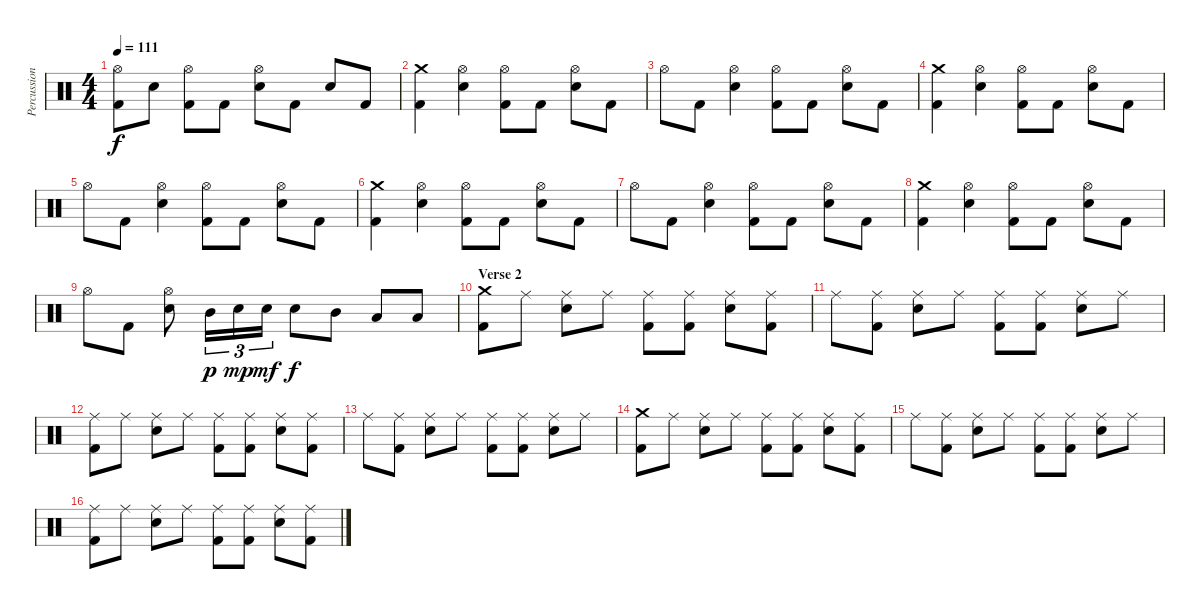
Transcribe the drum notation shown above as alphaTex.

\track ("Percussion" "Percussion") {instrument percussion}
\staff {score}
\articulation defaults
\ts (4 4)
\tempo 111
\clef neutral
\ks c
("Hi-Hat (open)" "Kick (hit) 2").8{dy f} "Electric Snare (hit)".8 ("Hi-Hat (open)" "Kick (hit) 2").8 "Kick (hit) 2".8 ("Hi-Hat (open)" "Electric Snare (hit)").8 "Kick (hit) 2".8 "Electric Snare (hit)".8 "Kick (hit) 2".8 |
("Crash medium (hit)" "Kick (hit) 2").4 ("Hi-Hat (open)" "Electric Snare (hit)").4 ("Hi-Hat (open)" "Kick (hit) 2").8 "Kick (hit) 2".8 ("Hi-Hat (open)" "Electric Snare (hit)").8 "Kick (hit) 2".8 |
"Hi-Hat (open)".8 "Kick (hit) 2".8 ("Hi-Hat (open)" "Electric Snare (hit)").4 ("Hi-Hat (open)" "Kick (hit) 2").8 "Kick (hit) 2".8 ("Hi-Hat (open)" "Electric Snare (hit)").8 "Kick (hit) 2".8 |
("Crash medium (hit)" "Kick (hit) 2").4 ("Hi-Hat (open)" "Electric Snare (hit)").4 ("Hi-Hat (open)" "Kick (hit) 2").8 "Kick (hit) 2".8 ("Hi-Hat (open)" "Electric Snare (hit)").8 "Kick (hit) 2".8 |
"Hi-Hat (open)".8 "Kick (hit) 2".8 ("Hi-Hat (open)" "Electric Snare (hit)").4 ("Hi-Hat (open)" "Kick (hit) 2").8 "Kick (hit) 2".8 ("Hi-Hat (open)" "Electric Snare (hit)").8 "Kick (hit) 2".8 |
("Crash medium (hit)" "Kick (hit) 2").4 ("Hi-Hat (open)" "Electric Snare (hit)").4 ("Hi-Hat (open)" "Kick (hit) 2").8 "Kick (hit) 2".8 ("Hi-Hat (open)" "Electric Snare (hit)").8 "Kick (hit) 2".8 |
"Hi-Hat (open)".8 "Kick (hit) 2".8 ("Hi-Hat (open)" "Electric Snare (hit)").4 ("Hi-Hat (open)" "Kick (hit) 2").8 "Kick (hit) 2".8 ("Hi-Hat (open)" "Electric Snare (hit)").8 "Kick (hit) 2".8 |
("Crash medium (hit)" "Kick (hit) 2").4 ("Hi-Hat (open)" "Electric Snare (hit)").4 ("Hi-Hat (open)" "Kick (hit) 2").8 "Kick (hit) 2".8 ("Hi-Hat (open)" "Electric Snare (hit)").8 "Kick (hit) 2".8 |
"Hi-Hat (open)".8 "Kick (hit) 2".8 ("Hi-Hat (open)" "Electric Snare (hit)").8 "Mid Tom (hit)".16{tu (3 2) dy p} "Electric Snare (hit)".16{tu (3 2) dy mp} "Electric Snare (hit)".16{tu (3 2) dy mf} "Electric Snare (hit)".8{dy f} "Mid Tom (hit)".8 "Low Floor Tom (hit)".8 "Low Floor Tom (hit)".8 |
\section ("" "Verse 2")
("Crash medium (hit)" "Kick (hit) 2").8 "Ride (middle)".8 ("Ride (middle)" "Electric Snare (hit)").8 "Ride (middle)".8 ("Ride (middle)" "Kick (hit) 2").8 ("Ride (middle)" "Kick (hit) 2").8 ("Ride (middle)" "Electric Snare (hit)").8 ("Ride (middle)" "Kick (hit) 2").8 |
"Ride (middle)".8 ("Ride (middle)" "Kick (hit) 2").8 ("Ride (middle)" "Electric Snare (hit)").8 "Ride (middle)".8 ("Ride (middle)" "Kick (hit) 2").8 ("Ride (middle)" "Kick (hit) 2").8 ("Ride (middle)" "Electric Snare (hit)").8 "Ride (middle)".8 |
("Ride (middle)" "Kick (hit) 2").8 "Ride (middle)".8 ("Ride (middle)" "Electric Snare (hit)").8 "Ride (middle)".8 ("Ride (middle)" "Kick (hit) 2").8 ("Ride (middle)" "Kick (hit) 2").8 ("Ride (middle)" "Electric Snare (hit)").8 ("Ride (middle)" "Kick (hit) 2").8 |
"Ride (middle)".8 ("Ride (middle)" "Kick (hit) 2").8 ("Ride (middle)" "Electric Snare (hit)").8 "Ride (middle)".8 ("Ride (middle)" "Kick (hit) 2").8 ("Ride (middle)" "Kick (hit) 2").8 ("Ride (middle)" "Electric Snare (hit)").8 "Ride (middle)".8 |
("Crash medium (hit)" "Kick (hit) 2").8 "Ride (middle)".8 ("Ride (middle)" "Electric Snare (hit)").8 "Ride (middle)".8 ("Ride (middle)" "Kick (hit) 2").8 ("Ride (middle)" "Kick (hit) 2").8 ("Ride (middle)" "Electric Snare (hit)").8 ("Ride (middle)" "Kick (hit) 2").8 |
"Ride (middle)".8 ("Ride (middle)" "Kick (hit) 2").8 ("Ride (middle)" "Electric Snare (hit)").8 "Ride (middle)".8 ("Ride (middle)" "Kick (hit) 2").8 ("Ride (middle)" "Kick (hit) 2").8 ("Ride (middle)" "Electric Snare (hit)").8 "Ride (middle)".8 |
("Ride (middle)" "Kick (hit) 2").8 "Ride (middle)".8 ("Ride (middle)" "Electric Snare (hit)").8 "Ride (middle)".8 ("Ride (middle)" "Kick (hit) 2").8 ("Ride (middle)" "Kick (hit) 2").8 ("Ride (middle)" "Electric Snare (hit)").8 ("Ride (middle)" "Kick (hit) 2").8
